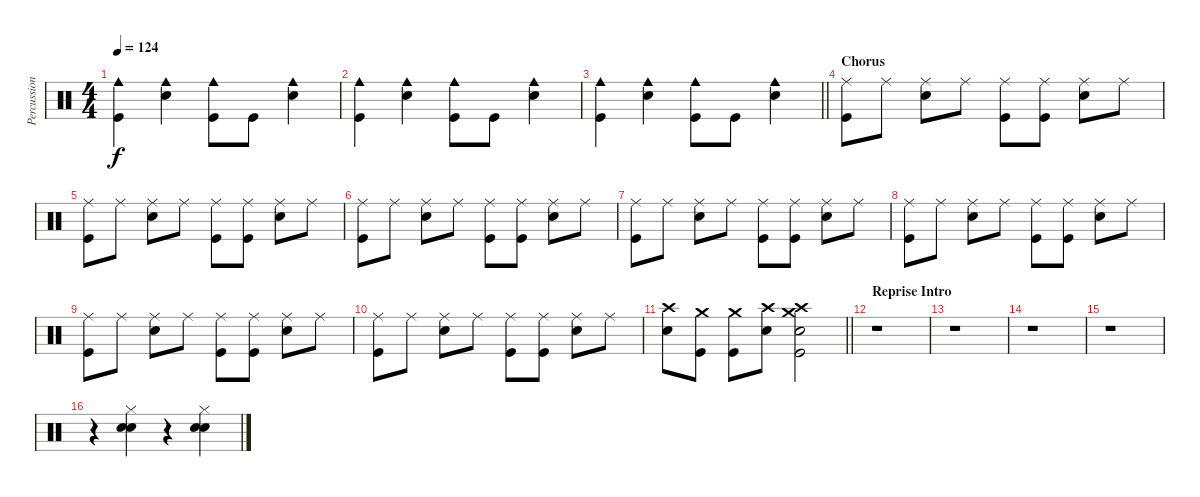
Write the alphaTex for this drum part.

\track ("Percussion" "Percussion") {solo instrument percussion}
\staff {score}
\articulation defaults
\ts (4 4)
\tempo 124
\clef neutral
\ks c
("Cowbell medium (hit)" "Kick (hit)").4{dy f} ("Cowbell medium (hit)" "Electric Snare (hit)").4 ("Cowbell medium (hit)" "Kick (hit)").8 "Kick (hit)".8 ("Cowbell medium (hit)" "Electric Snare (hit)").4 |
("Cowbell medium (hit)" "Kick (hit)").4 ("Cowbell medium (hit)" "Electric Snare (hit)").4 ("Cowbell medium (hit)" "Kick (hit)").8 "Kick (hit)".8 ("Cowbell medium (hit)" "Electric Snare (hit)").4 |
\barLineRight lightlight
("Cowbell medium (hit)" "Kick (hit)").4 ("Cowbell medium (hit)" "Electric Snare (hit)").4 ("Cowbell medium (hit)" "Kick (hit)").8 "Kick (hit)".8 ("Cowbell medium (hit)" "Electric Snare (hit)").4 |
\section ("" "Chorus")
("Ride (middle)" "Kick (hit)").8 "Ride (middle)".8 ("Ride (middle)" "Electric Snare (hit)").8 "Ride (middle)".8 ("Ride (middle)" "Kick (hit)").8 ("Ride (middle)" "Kick (hit)").8 ("Ride (middle)" "Electric Snare (hit)").8 "Ride (middle)".8 |
("Ride (middle)" "Kick (hit)").8 "Ride (middle)".8 ("Ride (middle)" "Electric Snare (hit)").8 "Ride (middle)".8 ("Ride (middle)" "Kick (hit)").8 ("Ride (middle)" "Kick (hit)").8 ("Ride (middle)" "Electric Snare (hit)").8 "Ride (middle)".8 |
("Ride (middle)" "Kick (hit)").8 "Ride (middle)".8 ("Ride (middle)" "Electric Snare (hit)").8 "Ride (middle)".8 ("Ride (middle)" "Kick (hit)").8 ("Ride (middle)" "Kick (hit)").8 ("Ride (middle)" "Electric Snare (hit)").8 "Ride (middle)".8 |
("Ride (middle)" "Kick (hit)").8 "Ride (middle)".8 ("Ride (middle)" "Electric Snare (hit)").8 "Ride (middle)".8 ("Ride (middle)" "Kick (hit)").8 ("Ride (middle)" "Kick (hit)").8 ("Ride (middle)" "Electric Snare (hit)").8 "Ride (middle)".8 |
("Ride (middle)" "Kick (hit)").8 "Ride (middle)".8 ("Ride (middle)" "Electric Snare (hit)").8 "Ride (middle)".8 ("Ride (middle)" "Kick (hit)").8 ("Ride (middle)" "Kick (hit)").8 ("Ride (middle)" "Electric Snare (hit)").8 "Ride (middle)".8 |
("Ride (middle)" "Kick (hit)").8 "Ride (middle)".8 ("Ride (middle)" "Electric Snare (hit)").8 "Ride (middle)".8 ("Ride (middle)" "Kick (hit)").8 ("Ride (middle)" "Kick (hit)").8 ("Ride (middle)" "Electric Snare (hit)").8 "Ride (middle)".8 |
("Ride (middle)" "Kick (hit)").8 "Ride (middle)".8 ("Ride (middle)" "Electric Snare (hit)").8 "Ride (middle)".8 ("Ride (middle)" "Kick (hit)").8 ("Ride (middle)" "Kick (hit)").8 ("Ride (middle)" "Electric Snare (hit)").8 "Ride (middle)".8 |
\barLineRight lightlight
("Crash high (hit)" "Electric Snare (hit)").8 ("Crash medium (hit)" "Kick (hit)").8 ("Crash medium (hit)" "Kick (hit)").8 ("Crash high (hit)" "Electric Snare (hit)").8 ("Crash medium (hit)" "Crash high (hit)" "Kick (hit)" "Electric Snare (hit)").2 |
\section ("" "Reprise Intro")
r.1 |
r.1 |
r.1 |
r.1 |
r.4 ("Snare (hit) 2" "Electric Snare (hit)" "Hi-Hat (closed)").4 r.4 ("Snare (hit) 2" "Electric Snare (hit)" "Hi-Hat (closed)").4
